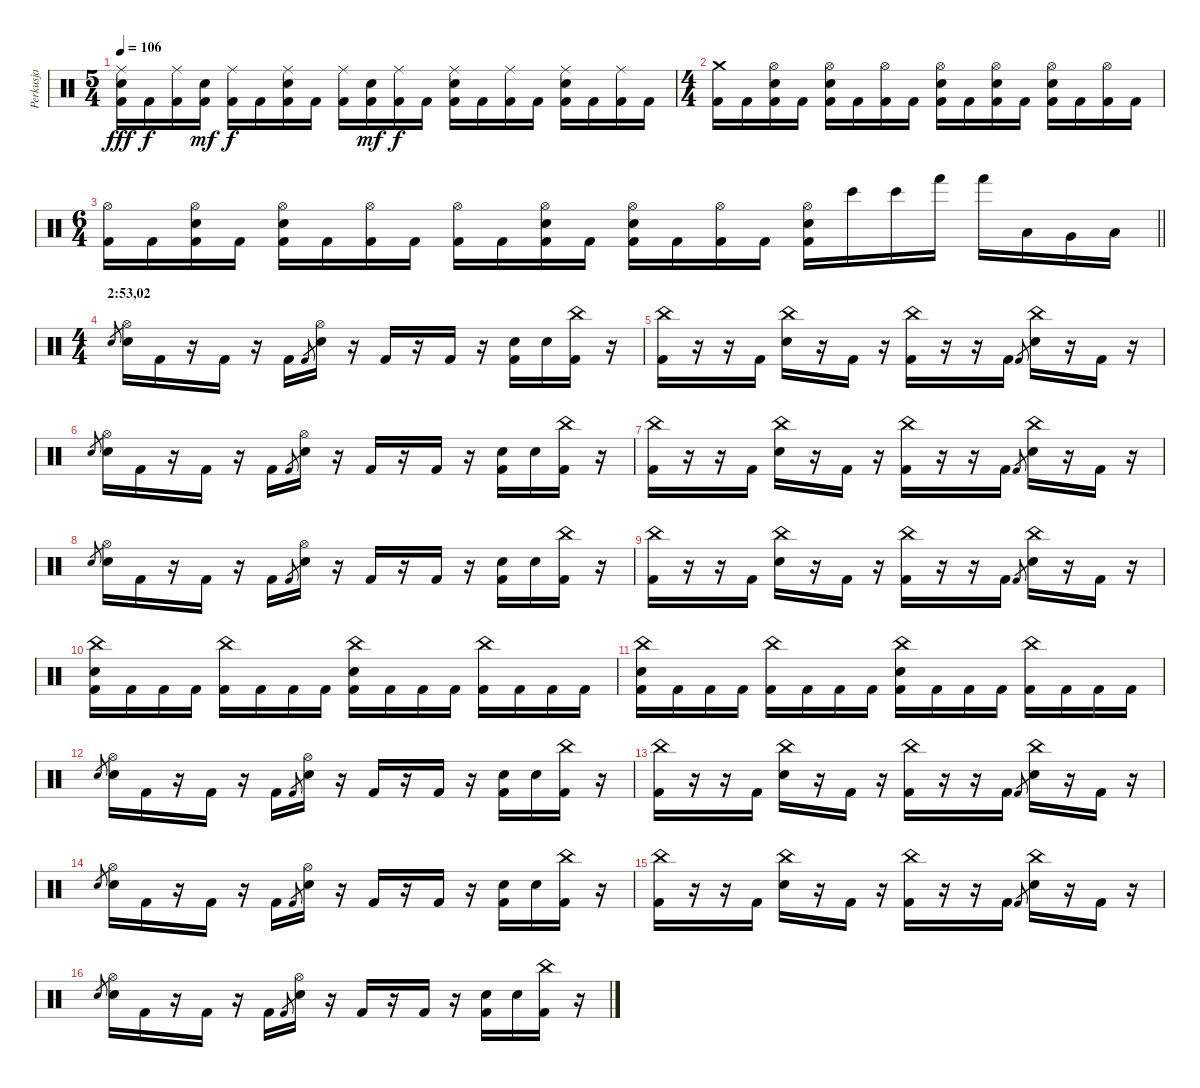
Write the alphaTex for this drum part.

\track ("Perkusja" "Perkusja") {instrument percussion}
\staff {score}
\articulation defaults
\ts (5 4)
\tempo 106
\clef neutral
\ks c
("Ride (middle)" "Electric Snare (hit)" "Kick (hit) 2").16{dy fff} "Kick (hit) 2".16{dy f} ("Ride (middle)" "Kick (hit) 2").16 ("Electric Snare (hit)" "Kick (hit) 2").16{dy mf} ("Ride (middle)" "Kick (hit) 2").16{dy f} "Kick (hit) 2".16 ("Ride (middle)" "Electric Snare (hit)" "Kick (hit) 2").16 "Kick (hit) 2".16 ("Ride (middle)" "Kick (hit) 2").16 ("Electric Snare (hit)" "Kick (hit) 2").16{dy mf} ("Ride (middle)" "Kick (hit) 2").16{dy f} "Kick (hit) 2".16 ("Ride (middle)" "Electric Snare (hit)" "Kick (hit) 2").16 "Kick (hit) 2".16 ("Ride (middle)" "Kick (hit) 2").16 "Kick (hit) 2".16 ("Ride (middle)" "Electric Snare (hit)" "Kick (hit) 2").16 "Kick (hit) 2".16 ("Ride (middle)" "Kick (hit) 2").16 "Kick (hit) 2".16 |
\ts (4 4)
("Crash medium (hit)" "Kick (hit) 2").16 "Kick (hit) 2".16 ("Hi-Hat (open)" "Electric Snare (hit)" "Kick (hit) 2").16 "Kick (hit) 2".16 ("Hi-Hat (open)" "Electric Snare (hit)" "Kick (hit) 2").16 "Kick (hit) 2".16 ("Hi-Hat (open)" "Kick (hit) 2").16 "Kick (hit) 2".16 ("Hi-Hat (open)" "Electric Snare (hit)" "Kick (hit) 2").16 "Kick (hit) 2".16 ("Hi-Hat (open)" "Electric Snare (hit)" "Kick (hit) 2").16 "Kick (hit) 2".16 ("Hi-Hat (open)" "Electric Snare (hit)" "Kick (hit) 2").16 "Kick (hit) 2".16 ("Hi-Hat (open)" "Kick (hit) 2").16 "Kick (hit) 2".16 |
\ts (6 4)
\barLineRight lightlight
("Hi-Hat (open)" "Kick (hit) 2").16 "Kick (hit) 2".16 ("Hi-Hat (open)" "Electric Snare (hit)" "Kick (hit) 2").16 "Kick (hit) 2".16 ("Hi-Hat (open)" "Electric Snare (hit)" "Kick (hit) 2").16 "Kick (hit) 2".16 ("Hi-Hat (open)" "Kick (hit) 2").16 "Kick (hit) 2".16 ("Hi-Hat (open)" "Kick (hit) 2").16 "Kick (hit) 2".16 ("Hi-Hat (open)" "Electric Snare (hit)" "Kick (hit) 2").16 "Kick (hit) 2".16 ("Hi-Hat (open)" "Electric Snare (hit)" "Kick (hit) 2").16 "Kick (hit) 2".16 ("Hi-Hat (open)" "Kick (hit) 2").16 "Kick (hit) 2".16 ("Hi-Hat (open)" "Electric Snare (hit)" "Kick (hit) 2").16 "Bongo High (hit)".16 "Bongo High (hit)".16 "Hand (hit)".16 "Hand (hit)".16 "Low Tom (hit)".16 "Very Low Tom (hit)".16 "Low Floor Tom (hit)".16 |
\ts (4 4)
\section ("" "2:53,02")
"Electric Snare (hit)".8{gr} ("Hi-Hat (open)" "Electric Snare (hit)").16 "Kick (hit) 2".16 r.16 "Kick (hit) 2".16 r.16 "Kick (hit) 2".16 "Kick (hit) 2".8{gr} ("Hi-Hat (open)" "Electric Snare (hit)").16 r.16 "Kick (hit) 2".16 r.16 "Kick (hit) 2".16 r.16 ("Electric Snare (hit)" "Kick (hit) 2").16 "Electric Snare (hit)".16 ("China (hit)" "Kick (hit) 2").16 r.16 |
("China (hit)" "Kick (hit) 2").16 r.16 r.16 "Kick (hit) 2".16 ("China (hit)" "Electric Snare (hit)").16 r.16 "Kick (hit) 2".16 r.16 ("China (hit)" "Kick (hit) 2").16 r.16 r.16 "Kick (hit) 2".16 "Kick (hit) 2".8{gr} ("China (hit)" "Electric Snare (hit)").16 r.16 "Kick (hit) 2".16 r.16 |
"Electric Snare (hit)".8{gr} ("Hi-Hat (open)" "Electric Snare (hit)").16 "Kick (hit) 2".16 r.16 "Kick (hit) 2".16 r.16 "Kick (hit) 2".16 "Kick (hit) 2".8{gr} ("Hi-Hat (open)" "Electric Snare (hit)").16 r.16 "Kick (hit) 2".16 r.16 "Kick (hit) 2".16 r.16 ("Electric Snare (hit)" "Kick (hit) 2").16 "Electric Snare (hit)".16 ("China (hit)" "Kick (hit) 2").16 r.16 |
("China (hit)" "Kick (hit) 2").16 r.16 r.16 "Kick (hit) 2".16 ("China (hit)" "Electric Snare (hit)").16 r.16 "Kick (hit) 2".16 r.16 ("China (hit)" "Kick (hit) 2").16 r.16 r.16 "Kick (hit) 2".16 "Kick (hit) 2".8{gr} ("China (hit)" "Electric Snare (hit)").16 r.16 "Kick (hit) 2".16 r.16 |
"Electric Snare (hit)".8{gr} ("Hi-Hat (open)" "Electric Snare (hit)").16 "Kick (hit) 2".16 r.16 "Kick (hit) 2".16 r.16 "Kick (hit) 2".16 "Kick (hit) 2".8{gr} ("Hi-Hat (open)" "Electric Snare (hit)").16 r.16 "Kick (hit) 2".16 r.16 "Kick (hit) 2".16 r.16 ("Electric Snare (hit)" "Kick (hit) 2").16 "Electric Snare (hit)".16 ("China (hit)" "Kick (hit) 2").16 r.16 |
("China (hit)" "Kick (hit) 2").16 r.16 r.16 "Kick (hit) 2".16 ("China (hit)" "Electric Snare (hit)").16 r.16 "Kick (hit) 2".16 r.16 ("China (hit)" "Kick (hit) 2").16 r.16 r.16 "Kick (hit) 2".16 "Kick (hit) 2".8{gr} ("China (hit)" "Electric Snare (hit)").16 r.16 "Kick (hit) 2".16 r.16 |
("China (hit)" "Electric Snare (hit)" "Kick (hit) 2").16 "Kick (hit) 2".16 "Kick (hit) 2".16 "Kick (hit) 2".16 ("China (hit)" "Kick (hit) 2").16 "Kick (hit) 2".16 "Kick (hit) 2".16 "Kick (hit) 2".16 ("China (hit)" "Electric Snare (hit)" "Kick (hit) 2").16 "Kick (hit) 2".16 "Kick (hit) 2".16 "Kick (hit) 2".16 ("China (hit)" "Kick (hit) 2").16 "Kick (hit) 2".16 "Kick (hit) 2".16 "Kick (hit) 2".16 |
("China (hit)" "Electric Snare (hit)" "Kick (hit) 2").16 "Kick (hit) 2".16 "Kick (hit) 2".16 "Kick (hit) 2".16 ("China (hit)" "Kick (hit) 2").16 "Kick (hit) 2".16 "Kick (hit) 2".16 "Kick (hit) 2".16 ("China (hit)" "Electric Snare (hit)" "Kick (hit) 2").16 "Kick (hit) 2".16 "Kick (hit) 2".16 "Kick (hit) 2".16 ("China (hit)" "Kick (hit) 2").16 "Kick (hit) 2".16 "Kick (hit) 2".16 "Kick (hit) 2".16 |
"Electric Snare (hit)".8{gr} ("Hi-Hat (open)" "Electric Snare (hit)").16 "Kick (hit) 2".16 r.16 "Kick (hit) 2".16 r.16 "Kick (hit) 2".16 "Kick (hit) 2".8{gr} ("Hi-Hat (open)" "Electric Snare (hit)").16 r.16 "Kick (hit) 2".16 r.16 "Kick (hit) 2".16 r.16 ("Electric Snare (hit)" "Kick (hit) 2").16 "Electric Snare (hit)".16 ("China (hit)" "Kick (hit) 2").16 r.16 |
("China (hit)" "Kick (hit) 2").16 r.16 r.16 "Kick (hit) 2".16 ("China (hit)" "Electric Snare (hit)").16 r.16 "Kick (hit) 2".16 r.16 ("China (hit)" "Kick (hit) 2").16 r.16 r.16 "Kick (hit) 2".16 "Kick (hit) 2".8{gr} ("China (hit)" "Electric Snare (hit)").16 r.16 "Kick (hit) 2".16 r.16 |
"Electric Snare (hit)".8{gr} ("Hi-Hat (open)" "Electric Snare (hit)").16 "Kick (hit) 2".16 r.16 "Kick (hit) 2".16 r.16 "Kick (hit) 2".16 "Kick (hit) 2".8{gr} ("Hi-Hat (open)" "Electric Snare (hit)").16 r.16 "Kick (hit) 2".16 r.16 "Kick (hit) 2".16 r.16 ("Electric Snare (hit)" "Kick (hit) 2").16 "Electric Snare (hit)".16 ("China (hit)" "Kick (hit) 2").16 r.16 |
("China (hit)" "Kick (hit) 2").16 r.16 r.16 "Kick (hit) 2".16 ("China (hit)" "Electric Snare (hit)").16 r.16 "Kick (hit) 2".16 r.16 ("China (hit)" "Kick (hit) 2").16 r.16 r.16 "Kick (hit) 2".16 "Kick (hit) 2".8{gr} ("China (hit)" "Electric Snare (hit)").16 r.16 "Kick (hit) 2".16 r.16 |
"Electric Snare (hit)".8{gr} ("Hi-Hat (open)" "Electric Snare (hit)").16 "Kick (hit) 2".16 r.16 "Kick (hit) 2".16 r.16 "Kick (hit) 2".16 "Kick (hit) 2".8{gr} ("Hi-Hat (open)" "Electric Snare (hit)").16 r.16 "Kick (hit) 2".16 r.16 "Kick (hit) 2".16 r.16 ("Electric Snare (hit)" "Kick (hit) 2").16 "Electric Snare (hit)".16 ("China (hit)" "Kick (hit) 2").16 r.16
